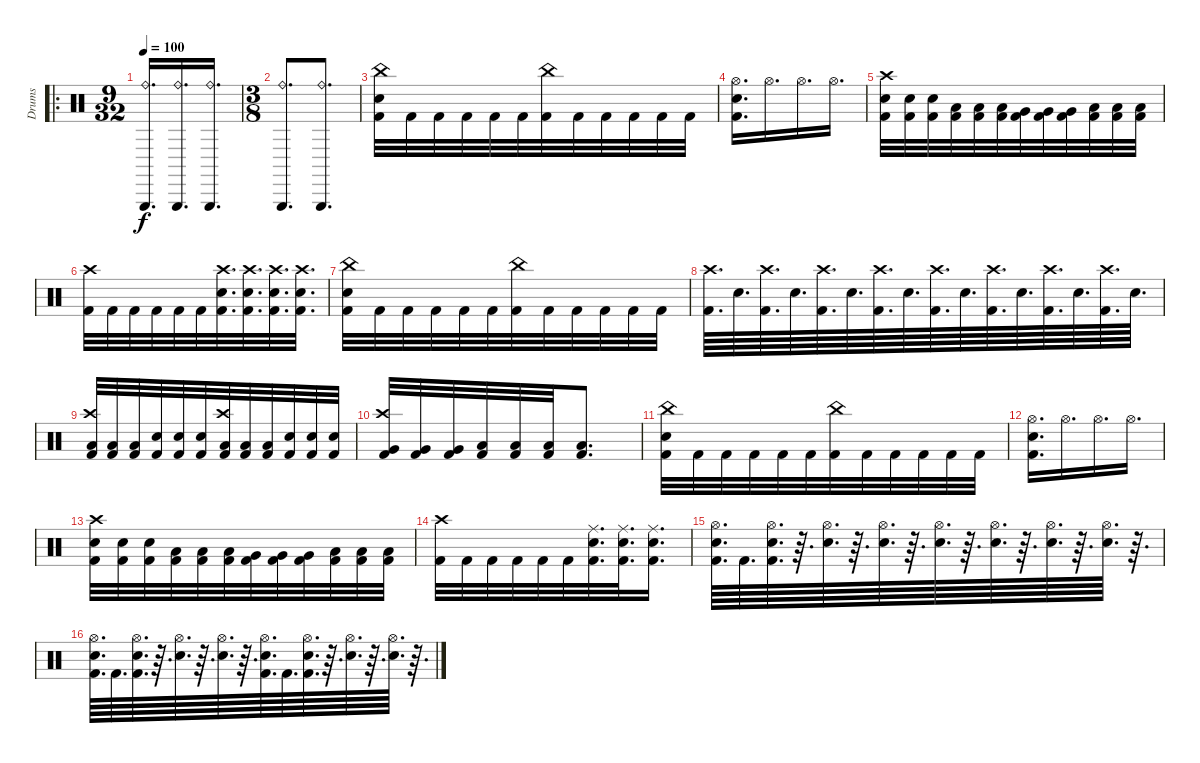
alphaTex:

\track ("Drums" "Drums") {instrument percussion}
\staff {score}
\articulation defaults
\ro
\ts (9 32)
\tempo 100
\clef neutral
\ks c
("Ride (bell)" "Triangle (hit)").16{d dy f} ("Ride (bell)" "Triangle (hit)").16{d} ("Ride (bell)" "Triangle (hit)").16{d} |
\ts (3 8)
("Ride (bell)" "Triangle (hit)").8{d} ("Ride (bell)" "Triangle (hit)").8{d} |
("China (hit)" "Electric Snare (hit)" "Kick (hit) 2").32 "Kick (hit) 2".32 "Kick (hit) 2".32 "Kick (hit) 2".32 "Kick (hit) 2".32 "Kick (hit) 2".32 ("China (hit)" "Kick (hit) 2").32 "Kick (hit) 2".32 "Kick (hit) 2".32 "Kick (hit) 2".32 "Kick (hit) 2".32 "Kick (hit) 2".32 |
("Hi-Hat (open)" "Electric Snare (hit)" "Kick (hit) 2").16{d} "Hi-Hat (open)".16{d} "Hi-Hat (open)".16{d} "Hi-Hat (open)".16{d} |
("Crash high (hit)" "Electric Snare (hit)" "Kick (hit) 2").32 ("Electric Snare (hit)" "Kick (hit) 2").32 ("Electric Snare (hit)" "Kick (hit) 2").32 ("Low Tom (hit)" "Kick (hit) 2").32 ("Low Tom (hit)" "Kick (hit) 2").32 ("Low Tom (hit)" "Kick (hit) 2").32 ("Very Low Tom (hit)" "Kick (hit) 2").32 ("Very Low Tom (hit)" "Kick (hit) 2").32 ("Very Low Tom (hit)" "Kick (hit) 2").32 ("Low Floor Tom (hit)" "Kick (hit) 2").32 ("Low Floor Tom (hit)" "Kick (hit) 2").32 ("Low Floor Tom (hit)" "Kick (hit) 2").32 |
("Crash high (hit)" "Kick (hit) 2").32 "Kick (hit) 2".32 "Kick (hit) 2".32 "Kick (hit) 2".32 "Kick (hit) 2".32 "Kick (hit) 2".32 ("Crash high (hit)" "Electric Snare (hit)" "Kick (hit) 2").32{d} ("Crash high (hit)" "Electric Snare (hit)" "Kick (hit) 2").32{d} ("Crash high (hit)" "Electric Snare (hit)" "Kick (hit) 2").32{d} ("Crash high (hit)" "Electric Snare (hit)" "Kick (hit) 2").32{d} |
("China (hit)" "Electric Snare (hit)" "Kick (hit) 2").32 "Kick (hit) 2".32 "Kick (hit) 2".32 "Kick (hit) 2".32 "Kick (hit) 2".32 "Kick (hit) 2".32 ("China (hit)" "Kick (hit) 2").32 "Kick (hit) 2".32 "Kick (hit) 2".32 "Kick (hit) 2".32 "Kick (hit) 2".32 "Kick (hit) 2".32 |
("Crash high (hit)" "Kick (hit) 2").64{d} "Electric Snare (hit)".64{d} ("Crash high (hit)" "Kick (hit) 2").64{d} "Electric Snare (hit)".64{d} ("Crash high (hit)" "Kick (hit) 2").64{d} "Electric Snare (hit)".64{d} ("Crash high (hit)" "Kick (hit) 2").64{d} "Electric Snare (hit)".64{d} ("Crash high (hit)" "Kick (hit) 2").64{d} "Electric Snare (hit)".64{d} ("Crash high (hit)" "Kick (hit) 2").64{d} "Electric Snare (hit)".64{d} ("Crash high (hit)" "Kick (hit) 2").64{d} "Electric Snare (hit)".64{d} ("Crash high (hit)" "Kick (hit) 2").64{d} "Electric Snare (hit)".64{d} |
("Crash high (hit)" "Low Tom (hit)" "Kick (hit) 2").32 ("Low Tom (hit)" "Kick (hit) 2").32 ("Low Tom (hit)" "Kick (hit) 2").32 ("Electric Snare (hit)" "Kick (hit) 2").32 ("Electric Snare (hit)" "Kick (hit) 2").32 ("Electric Snare (hit)" "Kick (hit) 2").32 ("Crash high (hit)" "Low Tom (hit)" "Kick (hit) 2").32 ("Low Tom (hit)" "Kick (hit) 2").32 ("Low Tom (hit)" "Kick (hit) 2").32 ("Electric Snare (hit)" "Kick (hit) 2").32 ("Electric Snare (hit)" "Kick (hit) 2").32 ("Electric Snare (hit)" "Kick (hit) 2").32 |
("Crash high (hit)" "Very Low Tom (hit)" "Kick (hit) 2").32 ("Very Low Tom (hit)" "Kick (hit) 2").32 ("Very Low Tom (hit)" "Kick (hit) 2").32 ("Low Floor Tom (hit)" "Kick (hit) 2").32 ("Low Floor Tom (hit)" "Kick (hit) 2").32 ("Low Floor Tom (hit)" "Kick (hit) 2").32 ("Low Floor Tom (hit)" "Kick (hit) 2").8{d} |
("China (hit)" "Electric Snare (hit)" "Kick (hit) 2").32 "Kick (hit) 2".32 "Kick (hit) 2".32 "Kick (hit) 2".32 "Kick (hit) 2".32 "Kick (hit) 2".32 ("China (hit)" "Kick (hit) 2").32 "Kick (hit) 2".32 "Kick (hit) 2".32 "Kick (hit) 2".32 "Kick (hit) 2".32 "Kick (hit) 2".32 |
("Hi-Hat (open)" "Electric Snare (hit)" "Kick (hit) 2").16{d} "Hi-Hat (open)".16{d} "Hi-Hat (open)".16{d} "Hi-Hat (open)".16{d} |
("Crash high (hit)" "Electric Snare (hit)" "Kick (hit) 2").32 ("Electric Snare (hit)" "Kick (hit) 2").32 ("Electric Snare (hit)" "Kick (hit) 2").32 ("Low Tom (hit)" "Kick (hit) 2").32 ("Low Tom (hit)" "Kick (hit) 2").32 ("Low Tom (hit)" "Kick (hit) 2").32 ("Very Low Tom (hit)" "Kick (hit) 2").32 ("Very Low Tom (hit)" "Kick (hit) 2").32 ("Very Low Tom (hit)" "Kick (hit) 2").32 ("Low Floor Tom (hit)" "Kick (hit) 2").32 ("Low Floor Tom (hit)" "Kick (hit) 2").32 ("Low Floor Tom (hit)" "Kick (hit) 2").32 |
("Crash high (hit)" "Kick (hit) 2").32 "Kick (hit) 2".32 "Kick (hit) 2".32 "Kick (hit) 2".32 "Kick (hit) 2".32 "Kick (hit) 2".32 ("Ride (middle)" "Electric Snare (hit)" "Kick (hit) 2").32{d} ("Ride (middle)" "Electric Snare (hit)" "Kick (hit) 2").32{d} ("Ride (middle)" "Electric Snare (hit)" "Kick (hit) 2").16{d} |
("Hi-Hat (open)" "Electric Snare (hit)" "Kick (hit) 2").64{d} "Kick (hit) 2".64{d} ("Hi-Hat (open)" "Electric Snare (hit)" "Kick (hit) 2").64{d} r.64{d} ("Hi-Hat (open)" "Electric Snare (hit)").64{d} r.64{d} ("Hi-Hat (open)" "Electric Snare (hit)").64{d} r.64{d} ("Hi-Hat (open)" "Electric Snare (hit)").64{d} r.64{d} ("Hi-Hat (open)" "Electric Snare (hit)").64{d} r.64{d} ("Hi-Hat (open)" "Electric Snare (hit)").64{d} r.64{d} ("Hi-Hat (open)" "Electric Snare (hit)").64{d} r.64{d} |
("Hi-Hat (open)" "Electric Snare (hit)" "Kick (hit) 2").64{d} "Kick (hit) 2".64{d} ("Hi-Hat (open)" "Electric Snare (hit)" "Kick (hit) 2").64{d} r.64{d} ("Hi-Hat (open)" "Electric Snare (hit)").64{d} r.64{d} ("Hi-Hat (open)" "Electric Snare (hit)").64{d} r.64{d} ("Hi-Hat (open)" "Electric Snare (hit)" "Kick (hit) 2").64{d} "Kick (hit) 2".64{d} ("Hi-Hat (open)" "Electric Snare (hit)" "Kick (hit) 2").64{d} r.64{d} ("Hi-Hat (open)" "Electric Snare (hit)").64{d} r.64{d} ("Hi-Hat (open)" "Electric Snare (hit)").64{d} r.64{d}
